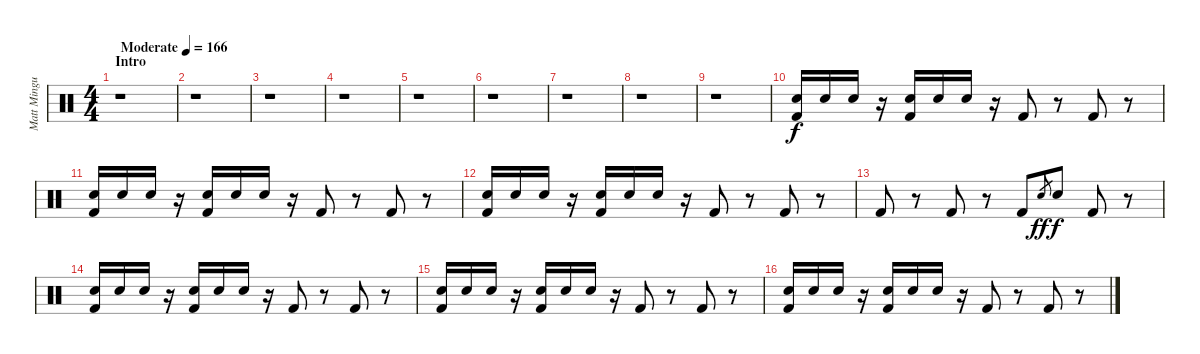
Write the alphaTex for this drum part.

\track ("Matt Mingus (Drum Kit)" "Matt Mingu") {instrument percussion}
\staff {score}
\articulation defaults
\ts (4 4)
\section ("" "Intro")
\tempo (166 "Moderate")
\clef neutral
\ks c
r.1{dy f} |
r.1 |
r.1 |
r.1 |
r.1 |
r.1 |
r.1 |
r.1 |
r.1 |
("Electric Snare (hit)" "Kick (hit) 2").16 "Electric Snare (hit)".16 "Electric Snare (hit)".16 r.16 ("Electric Snare (hit)" "Kick (hit) 2").16 "Electric Snare (hit)".16 "Electric Snare (hit)".16 r.16 "Kick (hit) 2".8 r.8 "Kick (hit) 2".8 r.8 |
("Electric Snare (hit)" "Kick (hit) 2").16 "Electric Snare (hit)".16 "Electric Snare (hit)".16 r.16 ("Electric Snare (hit)" "Kick (hit) 2").16 "Electric Snare (hit)".16 "Electric Snare (hit)".16 r.16 "Kick (hit) 2".8 r.8 "Kick (hit) 2".8 r.8 |
("Electric Snare (hit)" "Kick (hit) 2").16 "Electric Snare (hit)".16 "Electric Snare (hit)".16 r.16 ("Electric Snare (hit)" "Kick (hit) 2").16 "Electric Snare (hit)".16 "Electric Snare (hit)".16 r.16 "Kick (hit) 2".8 r.8 "Kick (hit) 2".8 r.8 |
"Kick (hit) 2".8 r.8 "Kick (hit) 2".8 r.8 "Kick (hit) 2".8 "Electric Snare (hit)".8{gr dy ff} "Electric Snare (hit)".8{dy f} "Kick (hit) 2".8 r.8 |
("Electric Snare (hit)" "Kick (hit) 2").16 "Electric Snare (hit)".16 "Electric Snare (hit)".16 r.16 ("Electric Snare (hit)" "Kick (hit) 2").16 "Electric Snare (hit)".16 "Electric Snare (hit)".16 r.16 "Kick (hit) 2".8 r.8 "Kick (hit) 2".8 r.8 |
("Electric Snare (hit)" "Kick (hit) 2").16 "Electric Snare (hit)".16 "Electric Snare (hit)".16 r.16 ("Electric Snare (hit)" "Kick (hit) 2").16 "Electric Snare (hit)".16 "Electric Snare (hit)".16 r.16 "Kick (hit) 2".8 r.8 "Kick (hit) 2".8 r.8 |
("Electric Snare (hit)" "Kick (hit) 2").16 "Electric Snare (hit)".16 "Electric Snare (hit)".16 r.16 ("Electric Snare (hit)" "Kick (hit) 2").16 "Electric Snare (hit)".16 "Electric Snare (hit)".16 r.16 "Kick (hit) 2".8 r.8 "Kick (hit) 2".8 r.8
